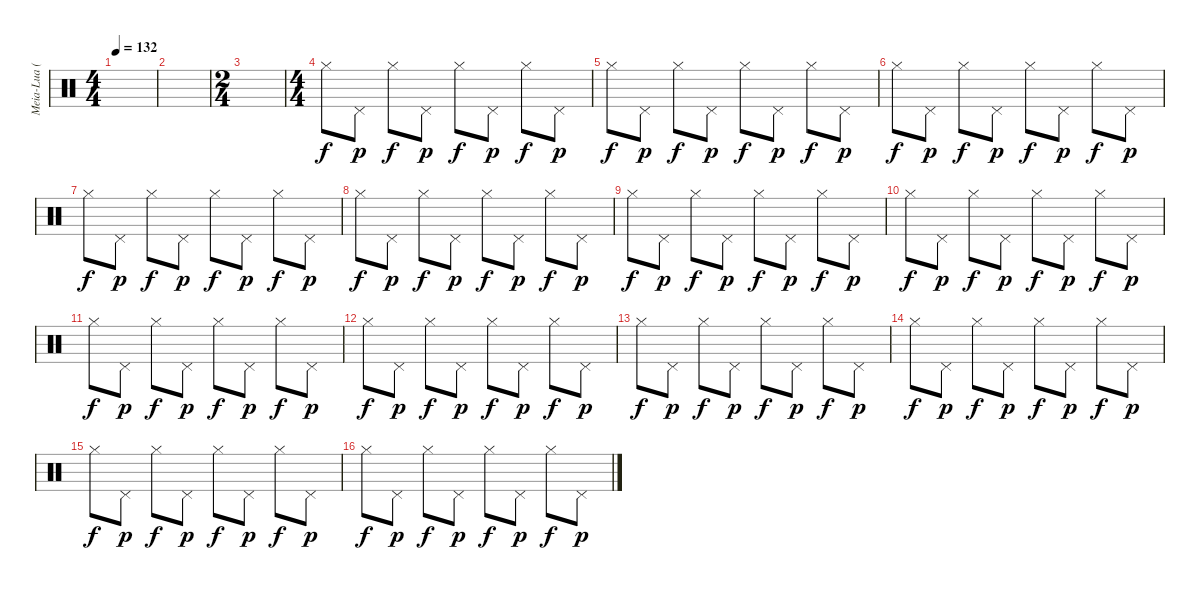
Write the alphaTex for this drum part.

\track ("Meia-Lua (hehe)" "Meia-Lua (") {instrument percussion}
\staff {score}
\articulation defaults
\ts (4 4)
\tempo 132
\clef neutral
\ks c
|
|
\ts (2 4)
|
\ts (4 4)
"Hi-Hat (closed)".8 "Pedal Hi-Hat (hit)".8{dy p} "Hi-Hat (closed)".8{dy f} "Pedal Hi-Hat (hit)".8{dy p} "Hi-Hat (closed)".8{dy f} "Pedal Hi-Hat (hit)".8{dy p} "Hi-Hat (closed)".8{dy f} "Pedal Hi-Hat (hit)".8{dy p} |
"Hi-Hat (closed)".8{dy f} "Pedal Hi-Hat (hit)".8{dy p} "Hi-Hat (closed)".8{dy f} "Pedal Hi-Hat (hit)".8{dy p} "Hi-Hat (closed)".8{dy f} "Pedal Hi-Hat (hit)".8{dy p} "Hi-Hat (closed)".8{dy f} "Pedal Hi-Hat (hit)".8{dy p} |
"Hi-Hat (closed)".8{dy f} "Pedal Hi-Hat (hit)".8{dy p} "Hi-Hat (closed)".8{dy f} "Pedal Hi-Hat (hit)".8{dy p} "Hi-Hat (closed)".8{dy f} "Pedal Hi-Hat (hit)".8{dy p} "Hi-Hat (closed)".8{dy f} "Pedal Hi-Hat (hit)".8{dy p} |
"Hi-Hat (closed)".8{dy f} "Pedal Hi-Hat (hit)".8{dy p} "Hi-Hat (closed)".8{dy f} "Pedal Hi-Hat (hit)".8{dy p} "Hi-Hat (closed)".8{dy f} "Pedal Hi-Hat (hit)".8{dy p} "Hi-Hat (closed)".8{dy f} "Pedal Hi-Hat (hit)".8{dy p} |
"Hi-Hat (closed)".8{dy f} "Pedal Hi-Hat (hit)".8{dy p} "Hi-Hat (closed)".8{dy f} "Pedal Hi-Hat (hit)".8{dy p} "Hi-Hat (closed)".8{dy f} "Pedal Hi-Hat (hit)".8{dy p} "Hi-Hat (closed)".8{dy f} "Pedal Hi-Hat (hit)".8{dy p} |
"Hi-Hat (closed)".8{dy f} "Pedal Hi-Hat (hit)".8{dy p} "Hi-Hat (closed)".8{dy f} "Pedal Hi-Hat (hit)".8{dy p} "Hi-Hat (closed)".8{dy f} "Pedal Hi-Hat (hit)".8{dy p} "Hi-Hat (closed)".8{dy f} "Pedal Hi-Hat (hit)".8{dy p} |
"Hi-Hat (closed)".8{dy f} "Pedal Hi-Hat (hit)".8{dy p} "Hi-Hat (closed)".8{dy f} "Pedal Hi-Hat (hit)".8{dy p} "Hi-Hat (closed)".8{dy f} "Pedal Hi-Hat (hit)".8{dy p} "Hi-Hat (closed)".8{dy f} "Pedal Hi-Hat (hit)".8{dy p} |
"Hi-Hat (closed)".8{dy f} "Pedal Hi-Hat (hit)".8{dy p} "Hi-Hat (closed)".8{dy f} "Pedal Hi-Hat (hit)".8{dy p} "Hi-Hat (closed)".8{dy f} "Pedal Hi-Hat (hit)".8{dy p} "Hi-Hat (closed)".8{dy f} "Pedal Hi-Hat (hit)".8{dy p} |
"Hi-Hat (closed)".8{dy f} "Pedal Hi-Hat (hit)".8{dy p} "Hi-Hat (closed)".8{dy f} "Pedal Hi-Hat (hit)".8{dy p} "Hi-Hat (closed)".8{dy f} "Pedal Hi-Hat (hit)".8{dy p} "Hi-Hat (closed)".8{dy f} "Pedal Hi-Hat (hit)".8{dy p} |
"Hi-Hat (closed)".8{dy f} "Pedal Hi-Hat (hit)".8{dy p} "Hi-Hat (closed)".8{dy f} "Pedal Hi-Hat (hit)".8{dy p} "Hi-Hat (closed)".8{dy f} "Pedal Hi-Hat (hit)".8{dy p} "Hi-Hat (closed)".8{dy f} "Pedal Hi-Hat (hit)".8{dy p} |
"Hi-Hat (closed)".8{dy f} "Pedal Hi-Hat (hit)".8{dy p} "Hi-Hat (closed)".8{dy f} "Pedal Hi-Hat (hit)".8{dy p} "Hi-Hat (closed)".8{dy f} "Pedal Hi-Hat (hit)".8{dy p} "Hi-Hat (closed)".8{dy f} "Pedal Hi-Hat (hit)".8{dy p} |
"Hi-Hat (closed)".8{dy f} "Pedal Hi-Hat (hit)".8{dy p} "Hi-Hat (closed)".8{dy f} "Pedal Hi-Hat (hit)".8{dy p} "Hi-Hat (closed)".8{dy f} "Pedal Hi-Hat (hit)".8{dy p} "Hi-Hat (closed)".8{dy f} "Pedal Hi-Hat (hit)".8{dy p} |
"Hi-Hat (closed)".8{dy f} "Pedal Hi-Hat (hit)".8{dy p} "Hi-Hat (closed)".8{dy f} "Pedal Hi-Hat (hit)".8{dy p} "Hi-Hat (closed)".8{dy f} "Pedal Hi-Hat (hit)".8{dy p} "Hi-Hat (closed)".8{dy f} "Pedal Hi-Hat (hit)".8{dy p}
